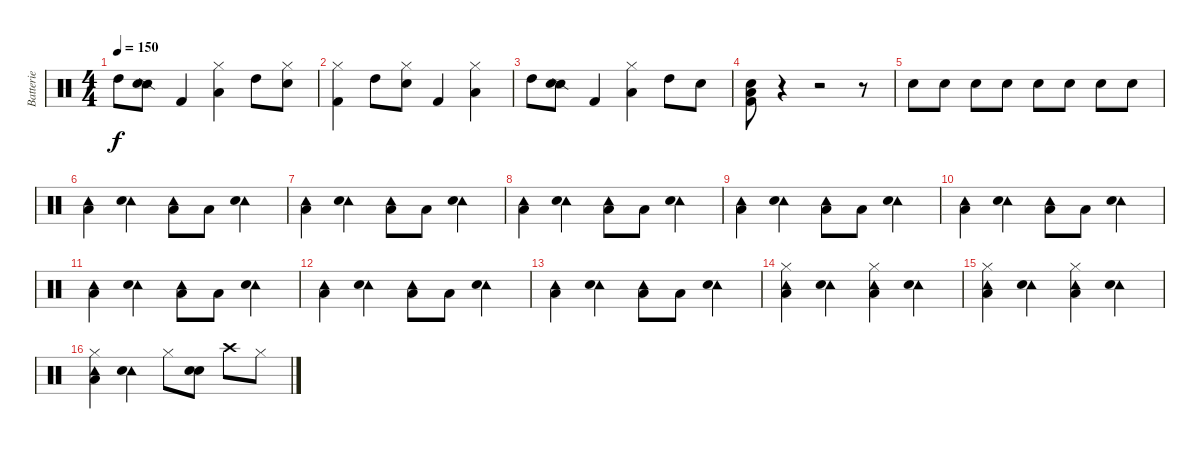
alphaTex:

\track ("Batterie" "Batterie") {instrument percussion}
\staff {score}
\articulation defaults
\ts (4 4)
\tempo 150
\clef neutral
\ks c "High Tom (hit)".8{dy f}
("Snare (side stick) 2" "Snare (hit) 2").8 "Kick (hit) 2".4 ("Hi-Hat (closed)" "Low Floor Tom (hit)").4 "High Tom (hit)".8 ("Hi-Hat (closed)" "Snare (hit) 2").8 |
("Hi-Hat (closed)" "Kick (hit) 2").4 "High Tom (hit)".8 ("Hi-Hat (closed)" "Snare (hit) 2").8 "Kick (hit) 2".4 ("Hi-Hat (closed)" "Low Floor Tom (hit)").4 |
"High Tom (hit)".8 ("Snare (side stick) 2" "Snare (hit) 2").8 "Kick (hit) 2".4 ("Hi-Hat (closed)" "Low Floor Tom (hit)").4 "High Tom (hit)".8 "Snare (hit) 2".8 |
("Kick (hit) 2" "Low Floor Tom (hit)" "Snare (hit) 2").8 r.4 r.2 r.8 |
"Snare (hit) 2".8 "Snare (hit) 2".8 "Snare (hit) 2".8 "Snare (hit) 2".8 "Snare (hit) 2".8 "Snare (hit) 2".8 "Snare (hit) 2".8 "Snare (hit) 2".8 |
("Tambourine (hit)" "Low Floor Tom (hit)").4 ("Tambourine (hit)" "Electric Snare (hit)").4 ("Tambourine (hit)" "Low Floor Tom (hit)").8 "Low Floor Tom (hit)".8 ("Tambourine (hit)" "Electric Snare (hit)").4 |
("Tambourine (hit)" "Low Floor Tom (hit)").4 ("Tambourine (hit)" "Electric Snare (hit)").4 ("Tambourine (hit)" "Low Floor Tom (hit)").8 "Low Floor Tom (hit)".8 ("Tambourine (hit)" "Electric Snare (hit)").4 |
("Tambourine (hit)" "Low Floor Tom (hit)").4 ("Tambourine (hit)" "Electric Snare (hit)").4 ("Tambourine (hit)" "Low Floor Tom (hit)").8 "Low Floor Tom (hit)".8 ("Tambourine (hit)" "Electric Snare (hit)").4 |
("Tambourine (hit)" "Low Floor Tom (hit)").4 ("Tambourine (hit)" "Electric Snare (hit)").4 ("Tambourine (hit)" "Low Floor Tom (hit)").8 "Low Floor Tom (hit)".8 ("Tambourine (hit)" "Electric Snare (hit)").4 |
("Tambourine (hit)" "Low Floor Tom (hit)").4 ("Tambourine (hit)" "Electric Snare (hit)").4 ("Tambourine (hit)" "Low Floor Tom (hit)").8 "Low Floor Tom (hit)".8 ("Tambourine (hit)" "Electric Snare (hit)").4 |
("Tambourine (hit)" "Low Floor Tom (hit)").4 ("Tambourine (hit)" "Electric Snare (hit)").4 ("Tambourine (hit)" "Low Floor Tom (hit)").8 "Low Floor Tom (hit)".8 ("Tambourine (hit)" "Electric Snare (hit)").4 |
("Tambourine (hit)" "Low Floor Tom (hit)").4 ("Tambourine (hit)" "Electric Snare (hit)").4 ("Tambourine (hit)" "Low Floor Tom (hit)").8 "Low Floor Tom (hit)".8 ("Tambourine (hit)" "Electric Snare (hit)").4 |
("Tambourine (hit)" "Low Floor Tom (hit)").4 ("Tambourine (hit)" "Electric Snare (hit)").4 ("Tambourine (hit)" "Low Floor Tom (hit)").8 "Low Floor Tom (hit)".8 ("Tambourine (hit)" "Electric Snare (hit)").4 |
("Tambourine (hit)" "Hi-Hat (closed)" "Low Floor Tom (hit)").4 ("Tambourine (hit)" "Electric Snare (hit)").4 ("Tambourine (hit)" "Hi-Hat (closed)" "Low Floor Tom (hit)").4 ("Tambourine (hit)" "Electric Snare (hit)").4 |
("Tambourine (hit)" "Hi-Hat (closed)" "Low Floor Tom (hit)").4 ("Tambourine (hit)" "Electric Snare (hit)").4 ("Tambourine (hit)" "Hi-Hat (closed)" "Low Floor Tom (hit)").4 ("Tambourine (hit)" "Electric Snare (hit)").4 |
("Tambourine (hit)" "Hi-Hat (closed)" "Low Floor Tom (hit)").4 ("Tambourine (hit)" "Electric Snare (hit)").4 "Hi-Hat (closed)".8 ("Snare (hit) 2" "Electric Snare (hit)").8 "Crash high (hit)".8 "Hi-Hat (closed)".8
